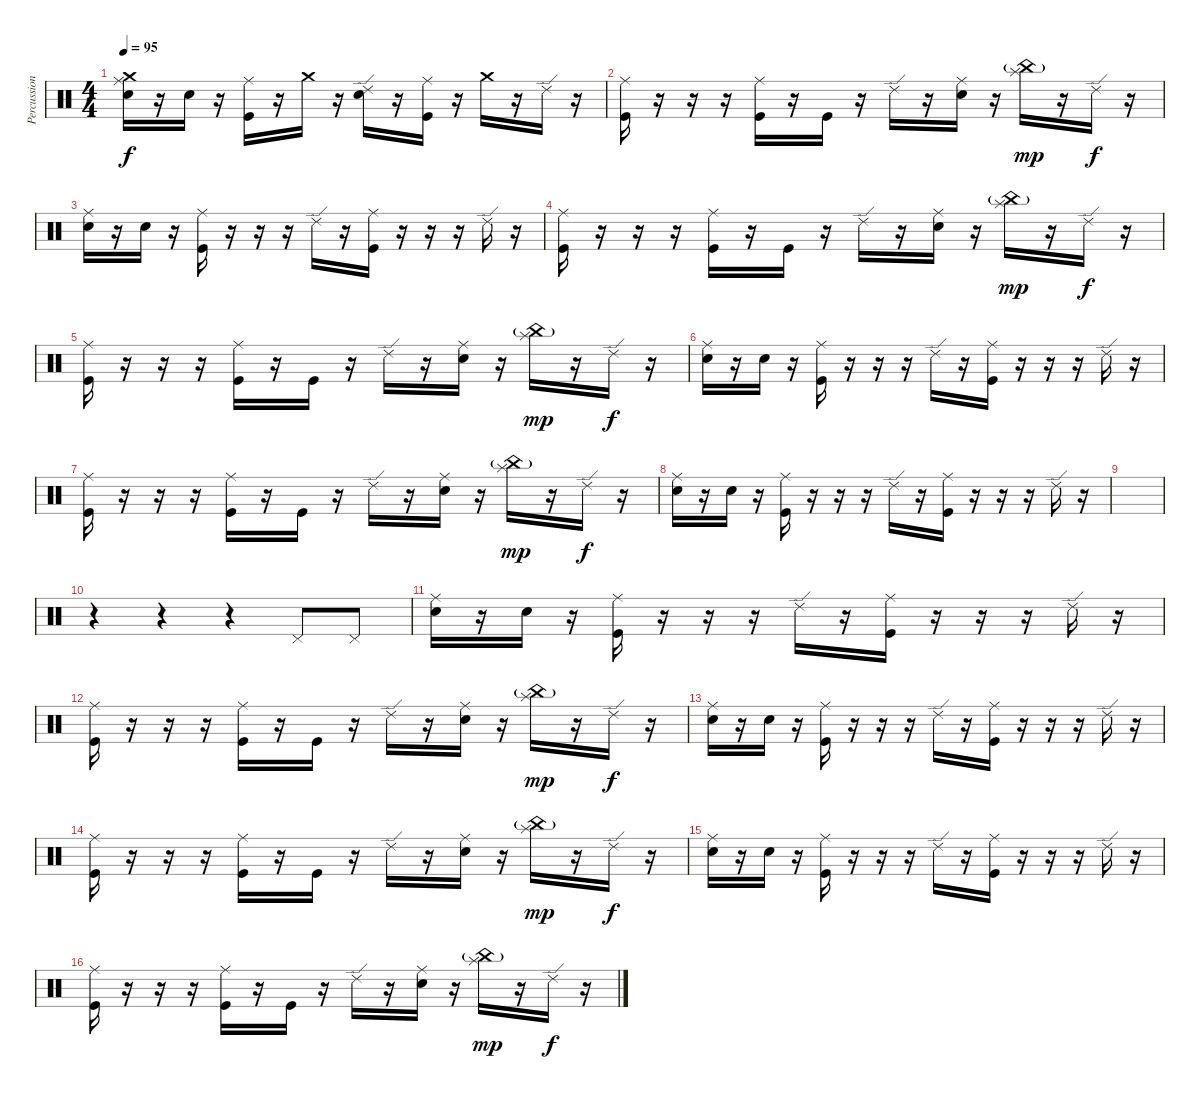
\track ("Percussions" "Percussion") {instrument percussion}
\staff {score}
\articulation defaults
\ts (4 4)
\tempo 95
\clef neutral
\ks c
("Ride (middle)" "Crash medium (hit)" "Electric Snare (hit)").16{dy f} r.16 "Electric Snare (hit)".16 r.16 ("Ride (middle)" "Kick (hit)").16 r.16 "Crash medium (hit)".16 r.16 ("Ride (edge) 2" "Snare (hit)").16 r.16 ("Ride (middle)" "Kick (hit)").16 r.16 "Crash medium (hit)".16 r.16 "Ride (edge) 2".16 r.16 |
("Ride (middle)" "Kick (hit)").16 r.16 r.16 r.16 ("Ride (middle)" "Kick (hit)").16 r.16 "Kick (hit)".16 r.16 "Ride (edge) 2".16 r.16 ("Ride (middle)" "Electric Snare (hit)").16 r.16 ("Splash (hit)" "China (hit)"{g}).16{dy mp} r.16 "Ride (edge) 2".16{dy f} r.16 |
("Ride (middle)" "Electric Snare (hit)").16 r.16 "Electric Snare (hit)".16 r.16 ("Ride (middle)" "Kick (hit)").16 r.16 r.16 r.16 "Ride (edge) 2".16 r.16 ("Ride (middle)" "Kick (hit)").16 r.16 r.16 r.16 "Ride (edge) 2".16 r.16 |
("Ride (middle)" "Kick (hit)").16 r.16 r.16 r.16 ("Ride (middle)" "Kick (hit)").16 r.16 "Kick (hit)".16 r.16 "Ride (edge) 2".16 r.16 ("Ride (middle)" "Electric Snare (hit)").16 r.16 ("Splash (hit)" "China (hit)"{g}).16{dy mp} r.16 "Ride (edge) 2".16{dy f} r.16 |
("Ride (middle)" "Kick (hit)").16 r.16 r.16 r.16 ("Ride (middle)" "Kick (hit)").16 r.16 "Kick (hit)".16 r.16 "Ride (edge) 2".16 r.16 ("Ride (middle)" "Electric Snare (hit)").16 r.16 ("Splash (hit)" "China (hit)"{g}).16{dy mp} r.16 "Ride (edge) 2".16{dy f} r.16 |
("Ride (middle)" "Electric Snare (hit)").16 r.16 "Electric Snare (hit)".16 r.16 ("Ride (middle)" "Kick (hit)").16 r.16 r.16 r.16 "Ride (edge) 2".16 r.16 ("Ride (middle)" "Kick (hit)").16 r.16 r.16 r.16 "Ride (edge) 2".16 r.16 |
("Ride (middle)" "Kick (hit)").16 r.16 r.16 r.16 ("Ride (middle)" "Kick (hit)").16 r.16 "Kick (hit)".16 r.16 "Ride (edge) 2".16 r.16 ("Ride (middle)" "Electric Snare (hit)").16 r.16 ("Splash (hit)" "China (hit)"{g}).16{dy mp} r.16 "Ride (edge) 2".16{dy f} r.16 |
("Ride (middle)" "Electric Snare (hit)").16 r.16 "Electric Snare (hit)".16 r.16 ("Ride (middle)" "Kick (hit)").16 r.16 r.16 r.16 "Ride (edge) 2".16 r.16 ("Ride (middle)" "Kick (hit)").16 r.16 r.16 r.16 "Ride (edge) 2".16 r.16 |
|
r.4 r.4 r.4 "Pedal Hi-Hat (hit)".8 "Pedal Hi-Hat (hit)".8 |
("Ride (middle)" "Electric Snare (hit)").16 r.16 "Electric Snare (hit)".16 r.16 ("Ride (middle)" "Kick (hit)").16 r.16 r.16 r.16 "Ride (edge) 2".16 r.16 ("Ride (middle)" "Kick (hit)").16 r.16 r.16 r.16 "Ride (edge) 2".16 r.16 |
("Ride (middle)" "Kick (hit)").16 r.16 r.16 r.16 ("Ride (middle)" "Kick (hit)").16 r.16 "Kick (hit)".16 r.16 "Ride (edge) 2".16 r.16 ("Ride (middle)" "Electric Snare (hit)").16 r.16 ("Splash (hit)" "China (hit)"{g}).16{dy mp} r.16 "Ride (edge) 2".16{dy f} r.16 |
("Ride (middle)" "Electric Snare (hit)").16 r.16 "Electric Snare (hit)".16 r.16 ("Ride (middle)" "Kick (hit)").16 r.16 r.16 r.16 "Ride (edge) 2".16 r.16 ("Ride (middle)" "Kick (hit)").16 r.16 r.16 r.16 "Ride (edge) 2".16 r.16 |
("Ride (middle)" "Kick (hit)").16 r.16 r.16 r.16 ("Ride (middle)" "Kick (hit)").16 r.16 "Kick (hit)".16 r.16 "Ride (edge) 2".16 r.16 ("Ride (middle)" "Electric Snare (hit)").16 r.16 ("Splash (hit)" "China (hit)"{g}).16{dy mp} r.16 "Ride (edge) 2".16{dy f} r.16 |
("Ride (middle)" "Electric Snare (hit)").16 r.16 "Electric Snare (hit)".16 r.16 ("Ride (middle)" "Kick (hit)").16 r.16 r.16 r.16 "Ride (edge) 2".16 r.16 ("Ride (middle)" "Kick (hit)").16 r.16 r.16 r.16 "Ride (edge) 2".16 r.16 |
("Ride (middle)" "Kick (hit)").16 r.16 r.16 r.16 ("Ride (middle)" "Kick (hit)").16 r.16 "Kick (hit)".16 r.16 "Ride (edge) 2".16 r.16 ("Ride (middle)" "Electric Snare (hit)").16 r.16 ("Splash (hit)" "China (hit)"{g}).16{dy mp} r.16 "Ride (edge) 2".16{dy f} r.16
